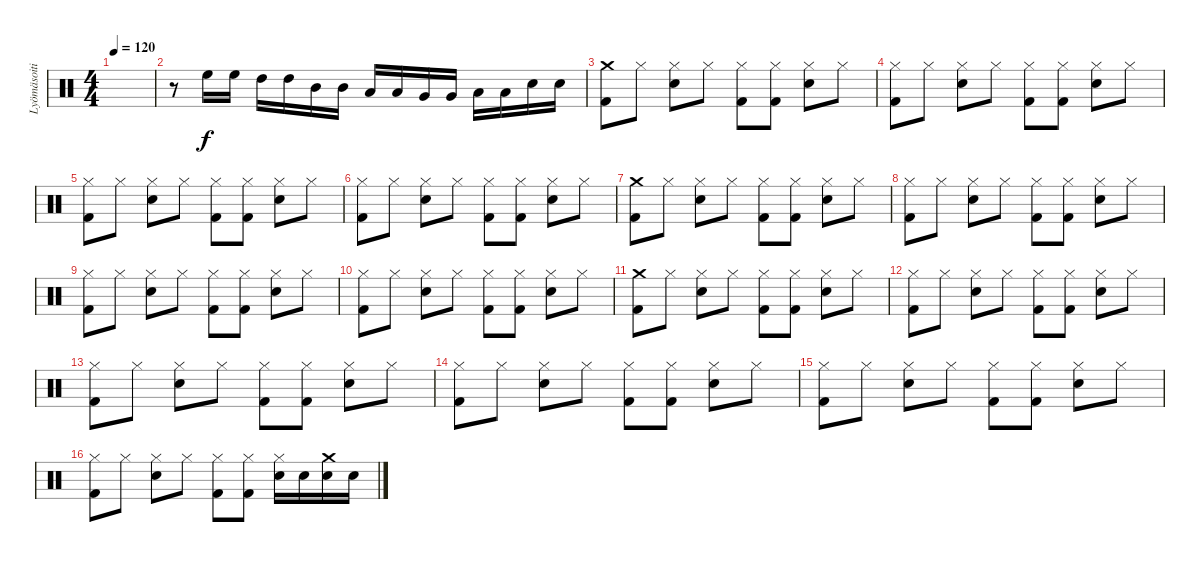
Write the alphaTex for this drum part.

\track ("Lyömäsoitin" "Lyömäsoiti") {instrument percussion}
\staff {score}
\articulation defaults
\ts (4 4)
\tempo 120
\clef neutral
\ks c
|
r.8 "High Floor Tom (hit)".16 "High Floor Tom (hit)".16 "High Tom (hit)".16 "High Tom (hit)".16 "Mid Tom (hit)".16 "Mid Tom (hit)".16 "Low Tom (hit)".16 "Low Tom (hit)".16 "Very Low Tom (hit)".16 "Very Low Tom (hit)".16 "Low Floor Tom (hit)".16 "Low Floor Tom (hit)".16 "Electric Snare (hit)".16 "Electric Snare (hit)".16 |
("Crash medium (hit)" "Kick (hit) 2").8 "Hi-Hat (closed)".8 ("Hi-Hat (closed)" "Electric Snare (hit)").8 "Hi-Hat (closed)".8 ("Hi-Hat (closed)" "Kick (hit) 2").8 ("Hi-Hat (closed)" "Kick (hit) 2").8 ("Hi-Hat (closed)" "Electric Snare (hit)").8 "Hi-Hat (closed)".8 |
("Hi-Hat (closed)" "Kick (hit) 2").8 "Hi-Hat (closed)".8 ("Hi-Hat (closed)" "Electric Snare (hit)").8 "Hi-Hat (closed)".8 ("Hi-Hat (closed)" "Kick (hit) 2").8 ("Hi-Hat (closed)" "Kick (hit) 2").8 ("Hi-Hat (closed)" "Electric Snare (hit)").8 "Hi-Hat (closed)".8 |
("Hi-Hat (closed)" "Kick (hit) 2").8 "Hi-Hat (closed)".8 ("Hi-Hat (closed)" "Electric Snare (hit)").8 "Hi-Hat (closed)".8 ("Hi-Hat (closed)" "Kick (hit) 2").8 ("Hi-Hat (closed)" "Kick (hit) 2").8 ("Hi-Hat (closed)" "Electric Snare (hit)").8 "Hi-Hat (closed)".8 |
("Hi-Hat (closed)" "Kick (hit) 2").8 "Hi-Hat (closed)".8 ("Hi-Hat (closed)" "Electric Snare (hit)").8 "Hi-Hat (closed)".8 ("Hi-Hat (closed)" "Kick (hit) 2").8 ("Hi-Hat (closed)" "Kick (hit) 2").8 ("Hi-Hat (closed)" "Electric Snare (hit)").8 "Hi-Hat (closed)".8 |
("Crash medium (hit)" "Kick (hit) 2").8 "Hi-Hat (closed)".8 ("Hi-Hat (closed)" "Electric Snare (hit)").8 "Hi-Hat (closed)".8 ("Hi-Hat (closed)" "Kick (hit) 2").8 ("Hi-Hat (closed)" "Kick (hit) 2").8 ("Hi-Hat (closed)" "Electric Snare (hit)").8 "Hi-Hat (closed)".8 |
("Hi-Hat (closed)" "Kick (hit) 2").8 "Hi-Hat (closed)".8 ("Hi-Hat (closed)" "Electric Snare (hit)").8 "Hi-Hat (closed)".8 ("Hi-Hat (closed)" "Kick (hit) 2").8 ("Hi-Hat (closed)" "Kick (hit) 2").8 ("Hi-Hat (closed)" "Electric Snare (hit)").8 "Hi-Hat (closed)".8 |
("Hi-Hat (closed)" "Kick (hit) 2").8 "Hi-Hat (closed)".8 ("Hi-Hat (closed)" "Electric Snare (hit)").8 "Hi-Hat (closed)".8 ("Hi-Hat (closed)" "Kick (hit) 2").8 ("Hi-Hat (closed)" "Kick (hit) 2").8 ("Hi-Hat (closed)" "Electric Snare (hit)").8 "Hi-Hat (closed)".8 |
("Hi-Hat (closed)" "Kick (hit) 2").8 "Hi-Hat (closed)".8 ("Hi-Hat (closed)" "Electric Snare (hit)").8 "Hi-Hat (closed)".8 ("Hi-Hat (closed)" "Kick (hit) 2").8 ("Hi-Hat (closed)" "Kick (hit) 2").8 ("Hi-Hat (closed)" "Electric Snare (hit)").8 "Hi-Hat (closed)".8 |
("Crash medium (hit)" "Kick (hit) 2").8 "Hi-Hat (closed)".8 ("Hi-Hat (closed)" "Electric Snare (hit)").8 "Hi-Hat (closed)".8 ("Hi-Hat (closed)" "Kick (hit) 2").8 ("Hi-Hat (closed)" "Kick (hit) 2").8 ("Hi-Hat (closed)" "Electric Snare (hit)").8 "Hi-Hat (closed)".8 |
("Hi-Hat (closed)" "Kick (hit) 2").8 "Hi-Hat (closed)".8 ("Hi-Hat (closed)" "Electric Snare (hit)").8 "Hi-Hat (closed)".8 ("Hi-Hat (closed)" "Kick (hit) 2").8 ("Hi-Hat (closed)" "Kick (hit) 2").8 ("Hi-Hat (closed)" "Electric Snare (hit)").8 "Hi-Hat (closed)".8 |
("Hi-Hat (closed)" "Kick (hit) 2").8 "Hi-Hat (closed)".8 ("Hi-Hat (closed)" "Electric Snare (hit)").8 "Hi-Hat (closed)".8 ("Hi-Hat (closed)" "Kick (hit) 2").8 ("Hi-Hat (closed)" "Kick (hit) 2").8 ("Hi-Hat (closed)" "Electric Snare (hit)").8 "Hi-Hat (closed)".8 |
("Hi-Hat (closed)" "Kick (hit) 2").8 "Hi-Hat (closed)".8 ("Hi-Hat (closed)" "Electric Snare (hit)").8 "Hi-Hat (closed)".8 ("Hi-Hat (closed)" "Kick (hit) 2").8 ("Hi-Hat (closed)" "Kick (hit) 2").8 ("Hi-Hat (closed)" "Electric Snare (hit)").8 "Hi-Hat (closed)".8 |
("Hi-Hat (closed)" "Kick (hit) 2").8 "Hi-Hat (closed)".8 ("Hi-Hat (closed)" "Electric Snare (hit)").8 "Hi-Hat (closed)".8 ("Hi-Hat (closed)" "Kick (hit) 2").8 ("Hi-Hat (closed)" "Kick (hit) 2").8 ("Hi-Hat (closed)" "Electric Snare (hit)").8 "Hi-Hat (closed)".8 |
("Hi-Hat (closed)" "Kick (hit) 2").8 "Hi-Hat (closed)".8 ("Hi-Hat (closed)" "Electric Snare (hit)").8 "Hi-Hat (closed)".8 ("Hi-Hat (closed)" "Kick (hit) 2").8 ("Hi-Hat (closed)" "Kick (hit) 2").8 ("Hi-Hat (closed)" "Electric Snare (hit)").16 "Electric Snare (hit)".16 ("Crash medium (hit)" "Electric Snare (hit)").16 "Electric Snare (hit)".16
